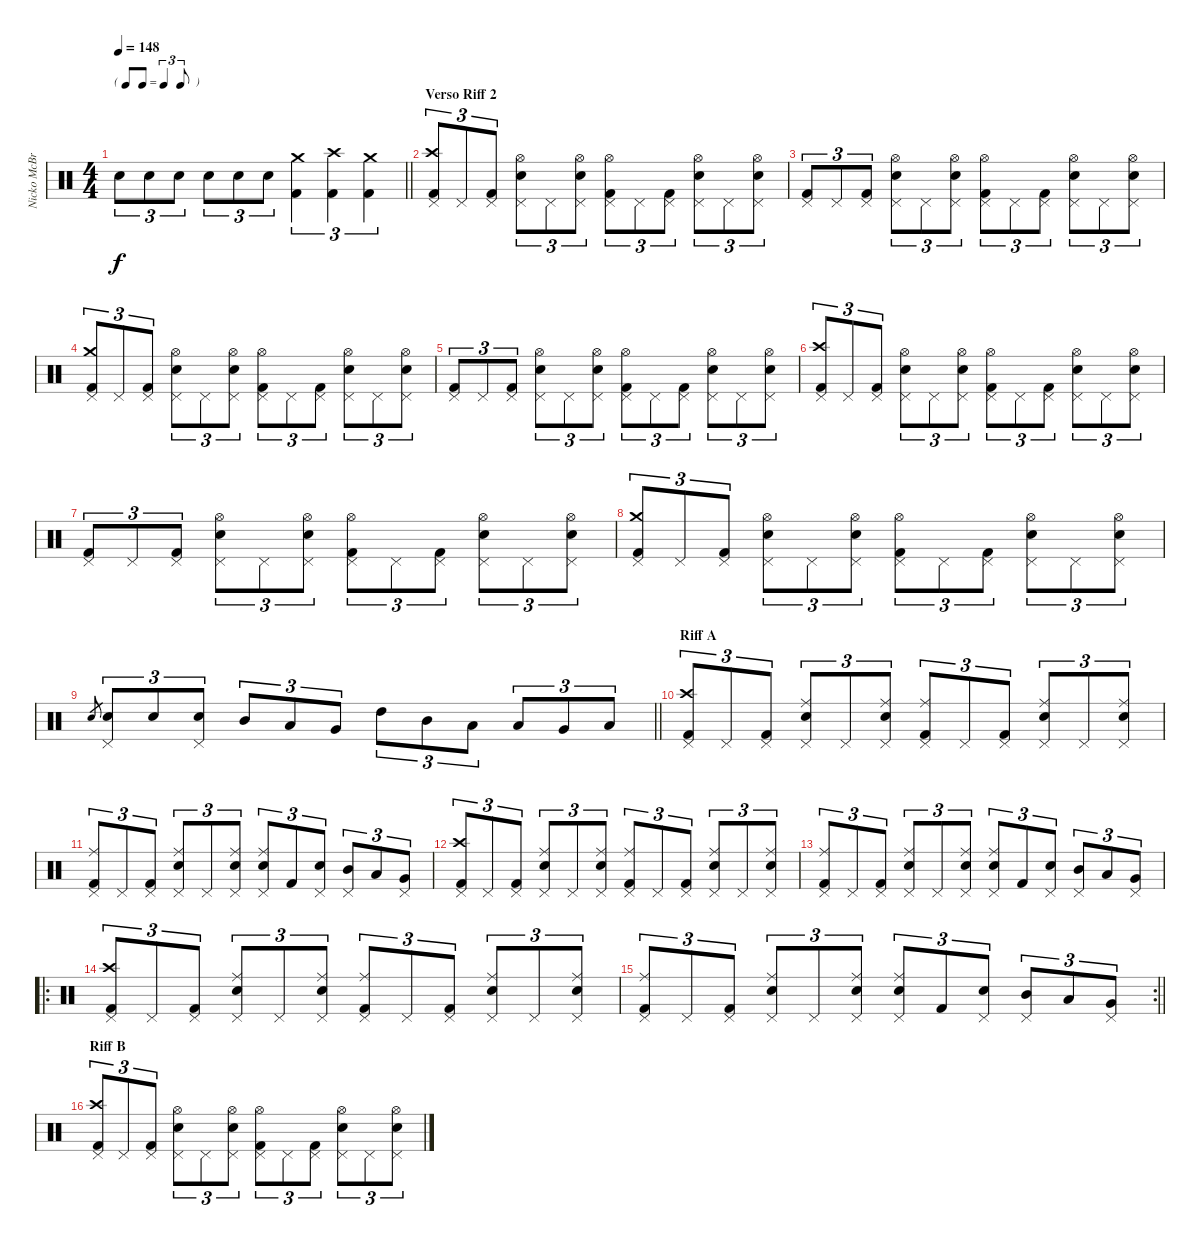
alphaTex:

\track ("Nicko McBrain" "Nicko McBr") {instrument percussion}
\staff {score}
\articulation defaults
\ts (4 4)
\tf triplet8th
\tempo 148
\clef neutral
\barLineRight lightlight
\ks c "Snare (hit) 2".8{tu (3 2) dy f} "Snare (hit) 2".8{tu (3 2)} "Snare (hit) 2".8{tu (3 2)} "Snare (hit) 2".8{tu (3 2)} "Snare (hit) 2".8{tu (3 2)} "Snare (hit) 2".8{tu (3 2)}
("Kick (hit) 2" "Crash medium (hit)").4{tu (3 2)} ("Kick (hit) 2" "Crash high (hit)").4{tu (3 2)} ("Kick (hit) 2" "Crash medium (hit)").4{tu (3 2)} |
\section ("" "Verso Riff 2")
("Kick (hit) 2" "Pedal Hi-Hat (hit)" "Crash high (hit)").8{tu (3 2)} "Pedal Hi-Hat (hit)".8{tu (3 2)} ("Kick (hit) 2" "Pedal Hi-Hat (hit)").8{tu (3 2)} ("Snare (hit) 2" "Pedal Hi-Hat (hit)" "Hi-Hat (open)").8{tu (3 2)} "Pedal Hi-Hat (hit)".8{tu (3 2)} ("Snare (hit) 2" "Pedal Hi-Hat (hit)" "Hi-Hat (open)").8{tu (3 2)} ("Kick (hit) 2" "Pedal Hi-Hat (hit)" "Hi-Hat (open)").8{tu (3 2)} "Pedal Hi-Hat (hit)".8{tu (3 2)} ("Kick (hit) 2" "Pedal Hi-Hat (hit)").8{tu (3 2)} ("Snare (hit) 2" "Pedal Hi-Hat (hit)" "Hi-Hat (open)").8{tu (3 2)} "Pedal Hi-Hat (hit)".8{tu (3 2)} ("Snare (hit) 2" "Pedal Hi-Hat (hit)" "Hi-Hat (open)").8{tu (3 2)} |
("Kick (hit) 2" "Pedal Hi-Hat (hit)").8{tu (3 2)} "Pedal Hi-Hat (hit)".8{tu (3 2)} ("Kick (hit) 2" "Pedal Hi-Hat (hit)").8{tu (3 2)} ("Snare (hit) 2" "Pedal Hi-Hat (hit)" "Hi-Hat (open)").8{tu (3 2)} "Pedal Hi-Hat (hit)".8{tu (3 2)} ("Snare (hit) 2" "Pedal Hi-Hat (hit)" "Hi-Hat (open)").8{tu (3 2)} ("Kick (hit) 2" "Pedal Hi-Hat (hit)" "Hi-Hat (open)").8{tu (3 2)} "Pedal Hi-Hat (hit)".8{tu (3 2)} ("Kick (hit) 2" "Pedal Hi-Hat (hit)").8{tu (3 2)} ("Snare (hit) 2" "Pedal Hi-Hat (hit)" "Hi-Hat (open)").8{tu (3 2)} "Pedal Hi-Hat (hit)".8{tu (3 2)} ("Snare (hit) 2" "Pedal Hi-Hat (hit)" "Hi-Hat (open)").8{tu (3 2)} |
("Kick (hit) 2" "Pedal Hi-Hat (hit)" "Crash medium (hit)").8{tu (3 2)} "Pedal Hi-Hat (hit)".8{tu (3 2)} ("Kick (hit) 2" "Pedal Hi-Hat (hit)").8{tu (3 2)} ("Snare (hit) 2" "Pedal Hi-Hat (hit)" "Hi-Hat (open)").8{tu (3 2)} "Pedal Hi-Hat (hit)".8{tu (3 2)} ("Snare (hit) 2" "Pedal Hi-Hat (hit)" "Hi-Hat (open)").8{tu (3 2)} ("Kick (hit) 2" "Pedal Hi-Hat (hit)" "Hi-Hat (open)").8{tu (3 2)} "Pedal Hi-Hat (hit)".8{tu (3 2)} ("Kick (hit) 2" "Pedal Hi-Hat (hit)").8{tu (3 2)} ("Snare (hit) 2" "Pedal Hi-Hat (hit)" "Hi-Hat (open)").8{tu (3 2)} "Pedal Hi-Hat (hit)".8{tu (3 2)} ("Snare (hit) 2" "Pedal Hi-Hat (hit)" "Hi-Hat (open)").8{tu (3 2)} |
("Kick (hit) 2" "Pedal Hi-Hat (hit)").8{tu (3 2)} "Pedal Hi-Hat (hit)".8{tu (3 2)} ("Kick (hit) 2" "Pedal Hi-Hat (hit)").8{tu (3 2)} ("Snare (hit) 2" "Pedal Hi-Hat (hit)" "Hi-Hat (open)").8{tu (3 2)} "Pedal Hi-Hat (hit)".8{tu (3 2)} ("Snare (hit) 2" "Pedal Hi-Hat (hit)" "Hi-Hat (open)").8{tu (3 2)} ("Kick (hit) 2" "Pedal Hi-Hat (hit)" "Hi-Hat (open)").8{tu (3 2)} "Pedal Hi-Hat (hit)".8{tu (3 2)} ("Kick (hit) 2" "Pedal Hi-Hat (hit)").8{tu (3 2)} ("Snare (hit) 2" "Pedal Hi-Hat (hit)" "Hi-Hat (open)").8{tu (3 2)} "Pedal Hi-Hat (hit)".8{tu (3 2)} ("Snare (hit) 2" "Pedal Hi-Hat (hit)" "Hi-Hat (open)").8{tu (3 2)} |
("Kick (hit) 2" "Pedal Hi-Hat (hit)" "Crash high (hit)").8{tu (3 2)} "Pedal Hi-Hat (hit)".8{tu (3 2)} ("Kick (hit) 2" "Pedal Hi-Hat (hit)").8{tu (3 2)} ("Snare (hit) 2" "Pedal Hi-Hat (hit)" "Hi-Hat (open)").8{tu (3 2)} "Pedal Hi-Hat (hit)".8{tu (3 2)} ("Snare (hit) 2" "Pedal Hi-Hat (hit)" "Hi-Hat (open)").8{tu (3 2)} ("Kick (hit) 2" "Pedal Hi-Hat (hit)" "Hi-Hat (open)").8{tu (3 2)} "Pedal Hi-Hat (hit)".8{tu (3 2)} ("Kick (hit) 2" "Pedal Hi-Hat (hit)").8{tu (3 2)} ("Snare (hit) 2" "Pedal Hi-Hat (hit)" "Hi-Hat (open)").8{tu (3 2)} "Pedal Hi-Hat (hit)".8{tu (3 2)} ("Snare (hit) 2" "Pedal Hi-Hat (hit)" "Hi-Hat (open)").8{tu (3 2)} |
("Kick (hit) 2" "Pedal Hi-Hat (hit)").8{tu (3 2)} "Pedal Hi-Hat (hit)".8{tu (3 2)} ("Kick (hit) 2" "Pedal Hi-Hat (hit)").8{tu (3 2)} ("Snare (hit) 2" "Pedal Hi-Hat (hit)" "Hi-Hat (open)").8{tu (3 2)} "Pedal Hi-Hat (hit)".8{tu (3 2)} ("Snare (hit) 2" "Pedal Hi-Hat (hit)" "Hi-Hat (open)").8{tu (3 2)} ("Kick (hit) 2" "Pedal Hi-Hat (hit)" "Hi-Hat (open)").8{tu (3 2)} "Pedal Hi-Hat (hit)".8{tu (3 2)} ("Kick (hit) 2" "Pedal Hi-Hat (hit)").8{tu (3 2)} ("Snare (hit) 2" "Pedal Hi-Hat (hit)" "Hi-Hat (open)").8{tu (3 2)} "Pedal Hi-Hat (hit)".8{tu (3 2)} ("Snare (hit) 2" "Pedal Hi-Hat (hit)" "Hi-Hat (open)").8{tu (3 2)} |
("Kick (hit) 2" "Pedal Hi-Hat (hit)" "Crash medium (hit)").8{tu (3 2)} "Pedal Hi-Hat (hit)".8{tu (3 2)} ("Kick (hit) 2" "Pedal Hi-Hat (hit)").8{tu (3 2)} ("Snare (hit) 2" "Pedal Hi-Hat (hit)" "Hi-Hat (open)").8{tu (3 2)} "Pedal Hi-Hat (hit)".8{tu (3 2)} ("Snare (hit) 2" "Pedal Hi-Hat (hit)" "Hi-Hat (open)").8{tu (3 2)} ("Kick (hit) 2" "Pedal Hi-Hat (hit)" "Hi-Hat (open)").8{tu (3 2)} "Pedal Hi-Hat (hit)".8{tu (3 2)} ("Kick (hit) 2" "Pedal Hi-Hat (hit)").8{tu (3 2)} ("Snare (hit) 2" "Pedal Hi-Hat (hit)" "Hi-Hat (open)").8{tu (3 2)} "Pedal Hi-Hat (hit)".8{tu (3 2)} ("Snare (hit) 2" "Pedal Hi-Hat (hit)" "Hi-Hat (open)").8{tu (3 2)} |
\barLineRight lightlight "Snare (hit) 2".8{gr}
("Snare (hit) 2" "Pedal Hi-Hat (hit)").8{tu (3 2)} "Snare (hit) 2".8{tu (3 2)} ("Snare (hit) 2" "Pedal Hi-Hat (hit)").8{tu (3 2)} "Mid Tom (hit)".8{tu (3 2)} "Low Tom (hit)".8{tu (3 2)} "Very Low Tom (hit)".8{tu (3 2)} "High Tom (hit)".8{tu (3 2)} "Mid Tom (hit)".8{tu (3 2)} "Low Tom (hit)".8{tu (3 2)} "Low Tom (hit)".8{tu (3 2)} "Very Low Tom (hit)".8{tu (3 2)} "Low Floor Tom (hit)".8{tu (3 2)} |
\section ("" "Riff A")
("Kick (hit) 2" "Pedal Hi-Hat (hit)" "Crash high (hit)").8{tu (3 2)} "Pedal Hi-Hat (hit)".8{tu (3 2)} ("Kick (hit) 2" "Pedal Hi-Hat (hit)").8{tu (3 2)} ("Snare (hit) 2" "Pedal Hi-Hat (hit)" "Ride (middle)").8{tu (3 2)} "Pedal Hi-Hat (hit)".8{tu (3 2)} ("Snare (hit) 2" "Pedal Hi-Hat (hit)" "Ride (middle)").8{tu (3 2)} ("Kick (hit) 2" "Pedal Hi-Hat (hit)" "Ride (middle)").8{tu (3 2)} "Pedal Hi-Hat (hit)".8{tu (3 2)} ("Kick (hit) 2" "Pedal Hi-Hat (hit)").8{tu (3 2)} ("Snare (hit) 2" "Pedal Hi-Hat (hit)" "Ride (middle)").8{tu (3 2)} "Pedal Hi-Hat (hit)".8{tu (3 2)} ("Snare (hit) 2" "Pedal Hi-Hat (hit)" "Ride (middle)").8{tu (3 2)} |
("Kick (hit) 2" "Pedal Hi-Hat (hit)" "Ride (middle)").8{tu (3 2)} "Pedal Hi-Hat (hit)".8{tu (3 2)} ("Kick (hit) 2" "Pedal Hi-Hat (hit)").8{tu (3 2)} ("Snare (hit) 2" "Pedal Hi-Hat (hit)" "Ride (middle)").8{tu (3 2)} "Pedal Hi-Hat (hit)".8{tu (3 2)} ("Snare (hit) 2" "Pedal Hi-Hat (hit)" "Ride (middle)").8{tu (3 2)} ("Snare (hit) 2" "Pedal Hi-Hat (hit)" "Ride (middle)").8{tu (3 2)} "Kick (hit) 2".8{tu (3 2)} ("Snare (hit) 2" "Pedal Hi-Hat (hit)").8{tu (3 2)} ("Mid Tom (hit)" "Pedal Hi-Hat (hit)").8{tu (3 2)} "Low Tom (hit)".8{tu (3 2)} ("Very Low Tom (hit)" "Pedal Hi-Hat (hit)").8{tu (3 2)} |
("Kick (hit) 2" "Pedal Hi-Hat (hit)" "Crash high (hit)").8{tu (3 2)} "Pedal Hi-Hat (hit)".8{tu (3 2)} ("Kick (hit) 2" "Pedal Hi-Hat (hit)").8{tu (3 2)} ("Snare (hit) 2" "Pedal Hi-Hat (hit)" "Ride (middle)").8{tu (3 2)} "Pedal Hi-Hat (hit)".8{tu (3 2)} ("Snare (hit) 2" "Pedal Hi-Hat (hit)" "Ride (middle)").8{tu (3 2)} ("Kick (hit) 2" "Pedal Hi-Hat (hit)" "Ride (middle)").8{tu (3 2)} "Pedal Hi-Hat (hit)".8{tu (3 2)} ("Kick (hit) 2" "Pedal Hi-Hat (hit)").8{tu (3 2)} ("Snare (hit) 2" "Pedal Hi-Hat (hit)" "Ride (middle)").8{tu (3 2)} "Pedal Hi-Hat (hit)".8{tu (3 2)} ("Snare (hit) 2" "Pedal Hi-Hat (hit)" "Ride (middle)").8{tu (3 2)} |
("Kick (hit) 2" "Pedal Hi-Hat (hit)" "Ride (middle)").8{tu (3 2)} "Pedal Hi-Hat (hit)".8{tu (3 2)} ("Kick (hit) 2" "Pedal Hi-Hat (hit)").8{tu (3 2)} ("Snare (hit) 2" "Pedal Hi-Hat (hit)" "Ride (middle)").8{tu (3 2)} "Pedal Hi-Hat (hit)".8{tu (3 2)} ("Snare (hit) 2" "Pedal Hi-Hat (hit)" "Ride (middle)").8{tu (3 2)} ("Snare (hit) 2" "Pedal Hi-Hat (hit)" "Ride (middle)").8{tu (3 2)} "Kick (hit) 2".8{tu (3 2)} ("Snare (hit) 2" "Pedal Hi-Hat (hit)").8{tu (3 2)} ("Mid Tom (hit)" "Pedal Hi-Hat (hit)").8{tu (3 2)} "Low Tom (hit)".8{tu (3 2)} ("Very Low Tom (hit)" "Pedal Hi-Hat (hit)").8{tu (3 2)} |
\ro
("Kick (hit) 2" "Pedal Hi-Hat (hit)" "Crash high (hit)").8{tu (3 2)} "Pedal Hi-Hat (hit)".8{tu (3 2)} ("Kick (hit) 2" "Pedal Hi-Hat (hit)").8{tu (3 2)} ("Snare (hit) 2" "Pedal Hi-Hat (hit)" "Ride (middle)").8{tu (3 2)} "Pedal Hi-Hat (hit)".8{tu (3 2)} ("Snare (hit) 2" "Pedal Hi-Hat (hit)" "Ride (middle)").8{tu (3 2)} ("Kick (hit) 2" "Pedal Hi-Hat (hit)" "Ride (middle)").8{tu (3 2)} "Pedal Hi-Hat (hit)".8{tu (3 2)} ("Kick (hit) 2" "Pedal Hi-Hat (hit)").8{tu (3 2)} ("Snare (hit) 2" "Pedal Hi-Hat (hit)" "Ride (middle)").8{tu (3 2)} "Pedal Hi-Hat (hit)".8{tu (3 2)} ("Snare (hit) 2" "Pedal Hi-Hat (hit)" "Ride (middle)").8{tu (3 2)} |
\rc 2
\barLineRight lightlight
("Kick (hit) 2" "Pedal Hi-Hat (hit)" "Ride (middle)").8{tu (3 2)} "Pedal Hi-Hat (hit)".8{tu (3 2)} ("Kick (hit) 2" "Pedal Hi-Hat (hit)").8{tu (3 2)} ("Snare (hit) 2" "Pedal Hi-Hat (hit)" "Ride (middle)").8{tu (3 2)} "Pedal Hi-Hat (hit)".8{tu (3 2)} ("Snare (hit) 2" "Pedal Hi-Hat (hit)" "Ride (middle)").8{tu (3 2)} ("Snare (hit) 2" "Pedal Hi-Hat (hit)" "Ride (middle)").8{tu (3 2)} "Kick (hit) 2".8{tu (3 2)} ("Snare (hit) 2" "Pedal Hi-Hat (hit)").8{tu (3 2)} ("Mid Tom (hit)" "Pedal Hi-Hat (hit)").8{tu (3 2)} "Low Tom (hit)".8{tu (3 2)} ("Very Low Tom (hit)" "Pedal Hi-Hat (hit)").8{tu (3 2)} |
\section ("" "Riff B")
("Kick (hit) 2" "Pedal Hi-Hat (hit)" "Crash high (hit)").8{tu (3 2)} "Pedal Hi-Hat (hit)".8{tu (3 2)} ("Kick (hit) 2" "Pedal Hi-Hat (hit)").8{tu (3 2)} ("Snare (hit) 2" "Pedal Hi-Hat (hit)" "Hi-Hat (open)").8{tu (3 2)} "Pedal Hi-Hat (hit)".8{tu (3 2)} ("Snare (hit) 2" "Pedal Hi-Hat (hit)" "Hi-Hat (open)").8{tu (3 2)} ("Kick (hit) 2" "Pedal Hi-Hat (hit)" "Hi-Hat (open)").8{tu (3 2)} "Pedal Hi-Hat (hit)".8{tu (3 2)} ("Kick (hit) 2" "Pedal Hi-Hat (hit)").8{tu (3 2)} ("Snare (hit) 2" "Pedal Hi-Hat (hit)" "Hi-Hat (open)").8{tu (3 2)} "Pedal Hi-Hat (hit)".8{tu (3 2)} ("Snare (hit) 2" "Pedal Hi-Hat (hit)" "Hi-Hat (open)").8{tu (3 2)}
